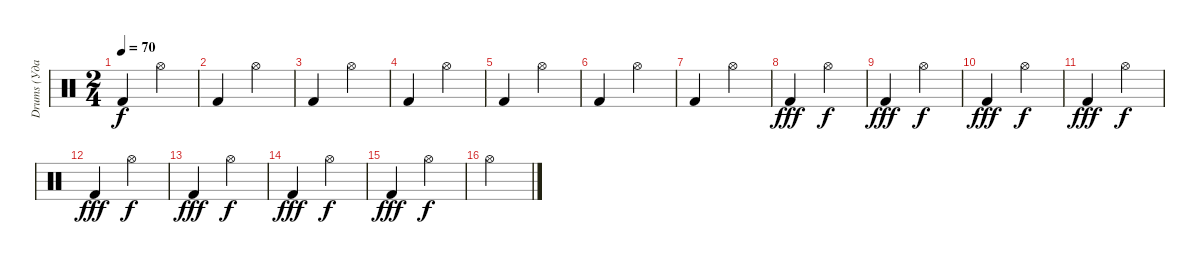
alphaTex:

\track ("Drums (Ударные)" "Drums (Уда") {instrument percussion}
\staff {score}
\articulation defaults
\ts (2 4)
\tempo 70
\clef neutral
\ks c "Kick (hit) 2".4{dy f} "Hi-Hat (open)".4
|
"Kick (hit) 2".4 "Hi-Hat (open)".4 |
"Kick (hit) 2".4 "Hi-Hat (open)".4 |
"Kick (hit) 2".4 "Hi-Hat (open)".4 |
"Kick (hit) 2".4 "Hi-Hat (open)".4 |
"Kick (hit) 2".4 "Hi-Hat (open)".4 |
"Kick (hit) 2".4 "Hi-Hat (open)".4 |
"Kick (hit) 2".4{dy fff} "Hi-Hat (open)".4{dy f} |
"Kick (hit) 2".4{dy fff} "Hi-Hat (open)".4{dy f} |
"Kick (hit) 2".4{dy fff} "Hi-Hat (open)".4{dy f} |
"Kick (hit) 2".4{dy fff} "Hi-Hat (open)".4{dy f} |
"Kick (hit) 2".4{dy fff} "Hi-Hat (open)".4{dy f} |
"Kick (hit) 2".4{dy fff} "Hi-Hat (open)".4{dy f} |
"Kick (hit) 2".4{dy fff} "Hi-Hat (open)".4{dy f} |
"Kick (hit) 2".4{dy fff} "Hi-Hat (open)".4{dy f} |
"Hi-Hat (open)".2
